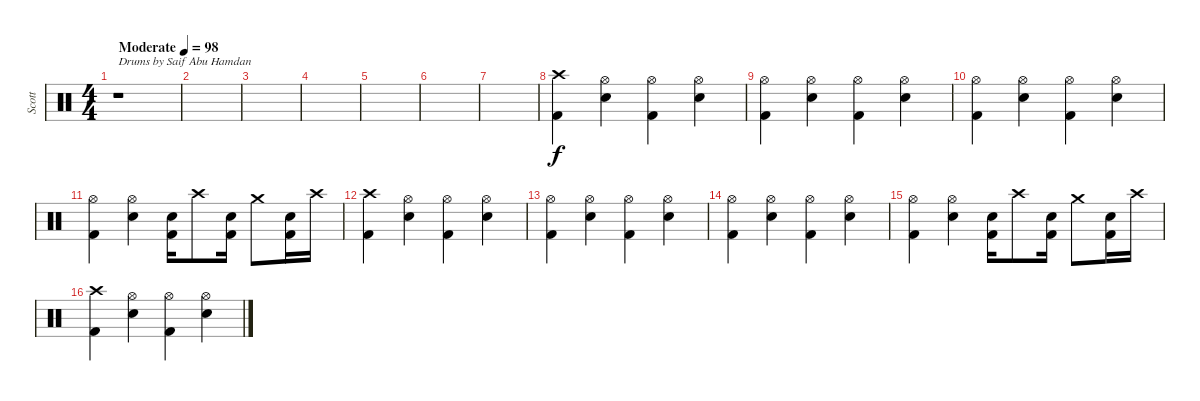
\track ("Scott" "Scott") {instrument percussion}
\staff {score}
\articulation defaults
\ts (4 4)
\tempo (98 "Moderate")
\clef neutral
\ks c
r.1{txt "Drums by Saif Abu Hamdan" dy f} |
|
|
|
|
|
|
("Crash high (hit)" "Kick (hit) 2").4 ("Hi-Hat (open)" "Snare (hit) 2").4 ("Hi-Hat (open)" "Kick (hit) 2").4 ("Hi-Hat (open)" "Snare (hit) 2").4 |
("Hi-Hat (open)" "Kick (hit) 2").4 ("Hi-Hat (open)" "Snare (hit) 2").4 ("Hi-Hat (open)" "Kick (hit) 2").4 ("Hi-Hat (open)" "Snare (hit) 2").4 |
("Hi-Hat (open)" "Kick (hit) 2").4 ("Hi-Hat (open)" "Snare (hit) 2").4 ("Hi-Hat (open)" "Kick (hit) 2").4 ("Hi-Hat (open)" "Snare (hit) 2").4 |
("Hi-Hat (open)" "Kick (hit) 2").4 ("Hi-Hat (open)" "Snare (hit) 2").4 ("Snare (hit) 2" "Kick (hit) 2").16 "Crash high (hit)".8 ("Snare (hit) 2" "Kick (hit) 2").16 "Crash medium (hit)".8 ("Snare (hit) 2" "Kick (hit) 2").16 "Crash high (hit)".16 |
("Crash high (hit)" "Kick (hit) 2").4 ("Hi-Hat (open)" "Snare (hit) 2").4 ("Hi-Hat (open)" "Kick (hit) 2").4 ("Hi-Hat (open)" "Snare (hit) 2").4 |
("Hi-Hat (open)" "Kick (hit) 2").4 ("Hi-Hat (open)" "Snare (hit) 2").4 ("Hi-Hat (open)" "Kick (hit) 2").4 ("Hi-Hat (open)" "Snare (hit) 2").4 |
("Hi-Hat (open)" "Kick (hit) 2").4 ("Hi-Hat (open)" "Snare (hit) 2").4 ("Hi-Hat (open)" "Kick (hit) 2").4 ("Hi-Hat (open)" "Snare (hit) 2").4 |
("Hi-Hat (open)" "Kick (hit) 2").4 ("Hi-Hat (open)" "Snare (hit) 2").4 ("Snare (hit) 2" "Kick (hit) 2").16 "Crash high (hit)".8 ("Snare (hit) 2" "Kick (hit) 2").16 "Crash medium (hit)".8 ("Snare (hit) 2" "Kick (hit) 2").16 "Crash high (hit)".16 |
("Crash high (hit)" "Kick (hit) 2").4 ("Hi-Hat (open)" "Snare (hit) 2").4 ("Hi-Hat (open)" "Kick (hit) 2").4 ("Hi-Hat (open)" "Snare (hit) 2").4
